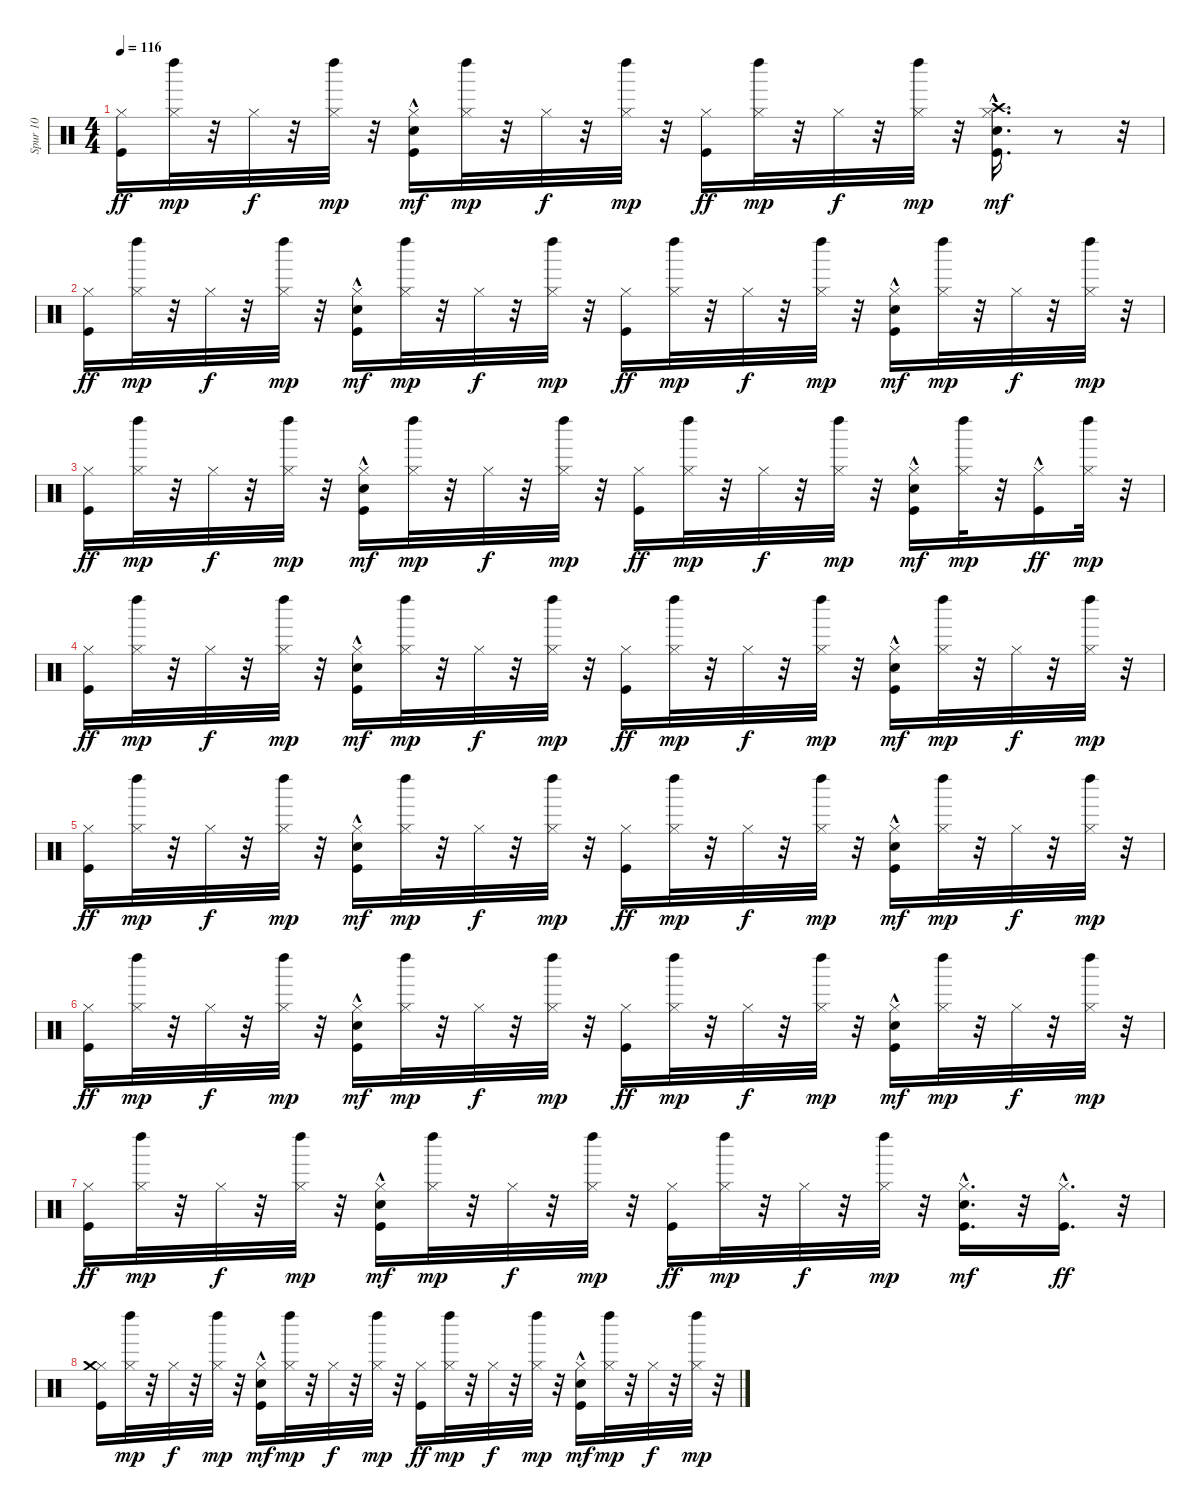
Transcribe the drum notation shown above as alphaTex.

\track ("Spur 10" "Spur 10") {instrument percussion}
\staff {score}
\articulation defaults
\ts (4 4)
\tempo 116
\clef neutral
\ks c
("Kick (hit)" "Hi-Hat (closed)").16{dy ff} ("Left Maraca (hit)" "Hi-Hat (closed)").32{dy mp} r.32 "Hi-Hat (closed)".32{dy f} r.32 ("Left Maraca (hit)" "Hi-Hat (closed)").32{dy mp} r.32 ("Kick (hit)"{hac} "Snare (hit) 2"{hac} "Hi-Hat (closed)").16{dy mf} ("Left Maraca (hit)" "Hi-Hat (closed)").32{dy mp} r.32 "Hi-Hat (closed)".32{dy f} r.32 ("Left Maraca (hit)" "Hi-Hat (closed)").32{dy mp} r.32 ("Kick (hit)" "Hi-Hat (closed)").16{dy ff} ("Left Maraca (hit)" "Hi-Hat (closed)").32{dy mp} r.32 "Hi-Hat (closed)".32{dy f} r.32 ("Left Maraca (hit)" "Hi-Hat (closed)").32{dy mp} r.32 ("Kick (hit)"{hac} "Snare (hit) 2"{hac} "Hi-Hat (closed)" "Crash high (hit)").16{d dy mf} r.8 r.32 |
("Kick (hit)" "Hi-Hat (closed)").16{dy ff} ("Left Maraca (hit)" "Hi-Hat (closed)").32{dy mp} r.32 "Hi-Hat (closed)".32{dy f} r.32 ("Left Maraca (hit)" "Hi-Hat (closed)").32{dy mp} r.32 ("Kick (hit)"{hac} "Snare (hit) 2"{hac} "Hi-Hat (closed)").16{dy mf} ("Left Maraca (hit)" "Hi-Hat (closed)").32{dy mp} r.32 "Hi-Hat (closed)".32{dy f} r.32 ("Left Maraca (hit)" "Hi-Hat (closed)").32{dy mp} r.32 ("Kick (hit)" "Hi-Hat (closed)").16{dy ff} ("Left Maraca (hit)" "Hi-Hat (closed)").32{dy mp} r.32 "Hi-Hat (closed)".32{dy f} r.32 ("Left Maraca (hit)" "Hi-Hat (closed)").32{dy mp} r.32 ("Kick (hit)"{hac} "Snare (hit) 2"{hac} "Hi-Hat (closed)").16{dy mf} ("Left Maraca (hit)" "Hi-Hat (closed)").32{dy mp} r.32 "Hi-Hat (closed)".32{dy f} r.32 ("Left Maraca (hit)" "Hi-Hat (closed)").32{dy mp} r.32 |
("Kick (hit)" "Hi-Hat (closed)").16{dy ff} ("Left Maraca (hit)" "Hi-Hat (closed)").32{dy mp} r.32 "Hi-Hat (closed)".32{dy f} r.32 ("Left Maraca (hit)" "Hi-Hat (closed)").32{dy mp} r.32 ("Kick (hit)"{hac} "Snare (hit) 2"{hac} "Hi-Hat (closed)").16{dy mf} ("Left Maraca (hit)" "Hi-Hat (closed)").32{dy mp} r.32 "Hi-Hat (closed)".32{dy f} r.32 ("Left Maraca (hit)" "Hi-Hat (closed)").32{dy mp} r.32 ("Kick (hit)" "Hi-Hat (closed)").16{dy ff} ("Left Maraca (hit)" "Hi-Hat (closed)").32{dy mp} r.32 "Hi-Hat (closed)".32{dy f} r.32 ("Left Maraca (hit)" "Hi-Hat (closed)").32{dy mp} r.32 ("Kick (hit)"{hac} "Snare (hit) 2"{hac} "Hi-Hat (closed)").16{dy mf} ("Left Maraca (hit)" "Hi-Hat (closed)").32{dy mp} r.32 ("Kick (hit)"{hac} "Hi-Hat (closed)").16{dy ff} ("Left Maraca (hit)" "Hi-Hat (closed)").32{dy mp} r.32 |
("Kick (hit)" "Hi-Hat (closed)").16{dy ff} ("Left Maraca (hit)" "Hi-Hat (closed)").32{dy mp} r.32 "Hi-Hat (closed)".32{dy f} r.32 ("Left Maraca (hit)" "Hi-Hat (closed)").32{dy mp} r.32 ("Kick (hit)"{hac} "Snare (hit) 2"{hac} "Hi-Hat (closed)").16{dy mf} ("Left Maraca (hit)" "Hi-Hat (closed)").32{dy mp} r.32 "Hi-Hat (closed)".32{dy f} r.32 ("Left Maraca (hit)" "Hi-Hat (closed)").32{dy mp} r.32 ("Kick (hit)" "Hi-Hat (closed)").16{dy ff} ("Left Maraca (hit)" "Hi-Hat (closed)").32{dy mp} r.32 "Hi-Hat (closed)".32{dy f} r.32 ("Left Maraca (hit)" "Hi-Hat (closed)").32{dy mp} r.32 ("Kick (hit)"{hac} "Snare (hit) 2"{hac} "Hi-Hat (closed)").16{dy mf} ("Left Maraca (hit)" "Hi-Hat (closed)").32{dy mp} r.32 "Hi-Hat (closed)".32{dy f} r.32 ("Left Maraca (hit)" "Hi-Hat (closed)").32{dy mp} r.32 |
("Kick (hit)" "Hi-Hat (closed)").16{dy ff} ("Left Maraca (hit)" "Hi-Hat (closed)").32{dy mp} r.32 "Hi-Hat (closed)".32{dy f} r.32 ("Left Maraca (hit)" "Hi-Hat (closed)").32{dy mp} r.32 ("Kick (hit)"{hac} "Snare (hit) 2"{hac} "Hi-Hat (closed)").16{dy mf} ("Left Maraca (hit)" "Hi-Hat (closed)").32{dy mp} r.32 "Hi-Hat (closed)".32{dy f} r.32 ("Left Maraca (hit)" "Hi-Hat (closed)").32{dy mp} r.32 ("Kick (hit)" "Hi-Hat (closed)").16{dy ff} ("Left Maraca (hit)" "Hi-Hat (closed)").32{dy mp} r.32 "Hi-Hat (closed)".32{dy f} r.32 ("Left Maraca (hit)" "Hi-Hat (closed)").32{dy mp} r.32 ("Kick (hit)"{hac} "Snare (hit) 2"{hac} "Hi-Hat (closed)").16{dy mf} ("Left Maraca (hit)" "Hi-Hat (closed)").32{dy mp} r.32 "Hi-Hat (closed)".32{dy f} r.32 ("Left Maraca (hit)" "Hi-Hat (closed)").32{dy mp} r.32 |
("Kick (hit)" "Hi-Hat (closed)").16{dy ff} ("Left Maraca (hit)" "Hi-Hat (closed)").32{dy mp} r.32 "Hi-Hat (closed)".32{dy f} r.32 ("Left Maraca (hit)" "Hi-Hat (closed)").32{dy mp} r.32 ("Kick (hit)"{hac} "Snare (hit) 2"{hac} "Hi-Hat (closed)").16{dy mf} ("Left Maraca (hit)" "Hi-Hat (closed)").32{dy mp} r.32 "Hi-Hat (closed)".32{dy f} r.32 ("Left Maraca (hit)" "Hi-Hat (closed)").32{dy mp} r.32 ("Kick (hit)" "Hi-Hat (closed)").16{dy ff} ("Left Maraca (hit)" "Hi-Hat (closed)").32{dy mp} r.32 "Hi-Hat (closed)".32{dy f} r.32 ("Left Maraca (hit)" "Hi-Hat (closed)").32{dy mp} r.32 ("Kick (hit)"{hac} "Snare (hit) 2"{hac} "Hi-Hat (closed)").16{dy mf} ("Left Maraca (hit)" "Hi-Hat (closed)").32{dy mp} r.32 "Hi-Hat (closed)".32{dy f} r.32 ("Left Maraca (hit)" "Hi-Hat (closed)").32{dy mp} r.32 |
("Kick (hit)" "Hi-Hat (closed)").16{dy ff} ("Left Maraca (hit)" "Hi-Hat (closed)").32{dy mp} r.32 "Hi-Hat (closed)".32{dy f} r.32 ("Left Maraca (hit)" "Hi-Hat (closed)").32{dy mp} r.32 ("Kick (hit)"{hac} "Snare (hit) 2"{hac} "Hi-Hat (closed)").16{dy mf} ("Left Maraca (hit)" "Hi-Hat (closed)").32{dy mp} r.32 "Hi-Hat (closed)".32{dy f} r.32 ("Left Maraca (hit)" "Hi-Hat (closed)").32{dy mp} r.32 ("Kick (hit)" "Hi-Hat (closed)").16{dy ff} ("Left Maraca (hit)" "Hi-Hat (closed)").32{dy mp} r.32 "Hi-Hat (closed)".32{dy f} r.32 ("Left Maraca (hit)" "Hi-Hat (closed)").32{dy mp} r.32 ("Kick (hit)"{hac} "Snare (hit) 2"{hac} "Hi-Hat (closed)").16{d dy mf} r.32 ("Kick (hit)"{hac} "Hi-Hat (closed)").16{d dy ff} r.32 |
("Kick (hit)" "Hi-Hat (closed)" "Crash medium (hit)").16 ("Left Maraca (hit)" "Hi-Hat (closed)").32{dy mp} r.32 "Hi-Hat (closed)".32{dy f} r.32 ("Left Maraca (hit)" "Hi-Hat (closed)").32{dy mp} r.32 ("Kick (hit)"{hac} "Snare (hit) 2"{hac} "Hi-Hat (closed)").16{dy mf} ("Left Maraca (hit)" "Hi-Hat (closed)").32{dy mp} r.32 "Hi-Hat (closed)".32{dy f} r.32 ("Left Maraca (hit)" "Hi-Hat (closed)").32{dy mp} r.32 ("Kick (hit)" "Hi-Hat (closed)").16{dy ff} ("Left Maraca (hit)" "Hi-Hat (closed)").32{dy mp} r.32 "Hi-Hat (closed)".32{dy f} r.32 ("Left Maraca (hit)" "Hi-Hat (closed)").32{dy mp} r.32 ("Kick (hit)"{hac} "Snare (hit) 2"{hac} "Hi-Hat (closed)").16{dy mf} ("Left Maraca (hit)" "Hi-Hat (closed)").32{dy mp} r.32 "Hi-Hat (closed)".32{dy f} r.32 ("Left Maraca (hit)" "Hi-Hat (closed)").32{dy mp} r.32
